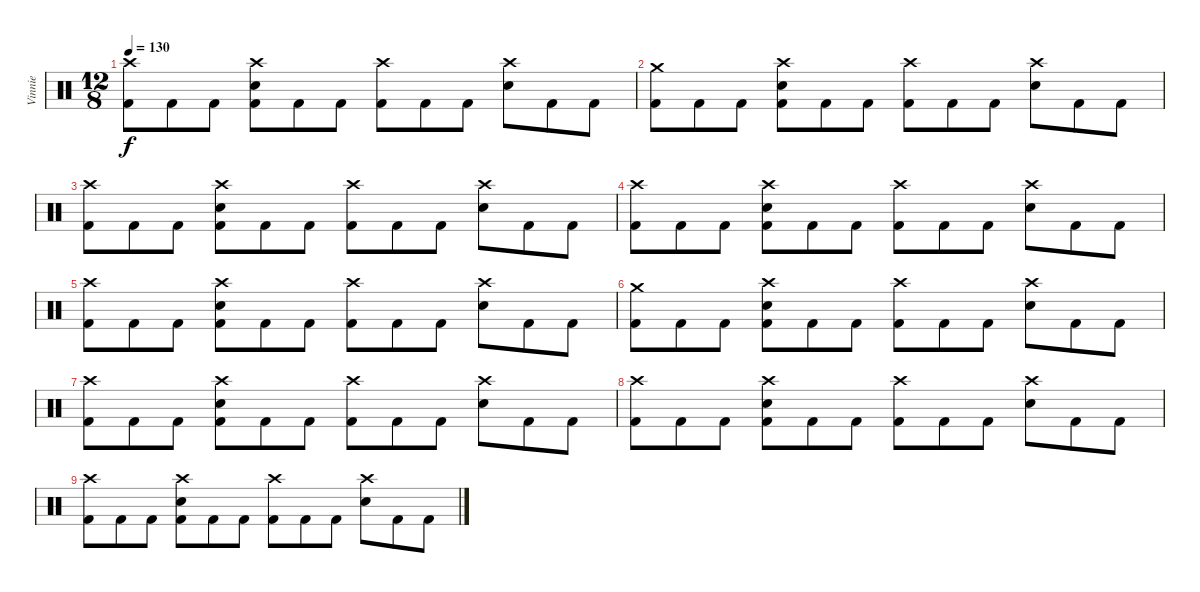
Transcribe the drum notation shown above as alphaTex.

\track ("Vinnie" "Vinnie") {instrument percussion}
\staff {score}
\articulation defaults
\ts (12 8)
\tempo 130
\clef neutral
\ks c
("Crash high (hit)" "Kick (hit) 2").8{dy f} "Kick (hit) 2".8 "Kick (hit) 2".8 ("Crash high (hit)" "Electric Snare (hit)" "Kick (hit) 2").8 "Kick (hit) 2".8 "Kick (hit) 2".8 ("Crash high (hit)" "Kick (hit) 2").8 "Kick (hit) 2".8 "Kick (hit) 2".8 ("Crash high (hit)" "Electric Snare (hit)").8 "Kick (hit) 2".8 "Kick (hit) 2".8 |
("Crash medium (hit)" "Kick (hit) 2").8 "Kick (hit) 2".8 "Kick (hit) 2".8 ("Crash high (hit)" "Electric Snare (hit)" "Kick (hit) 2").8 "Kick (hit) 2".8 "Kick (hit) 2".8 ("Crash high (hit)" "Kick (hit) 2").8 "Kick (hit) 2".8 "Kick (hit) 2".8 ("Crash high (hit)" "Electric Snare (hit)").8 "Kick (hit) 2".8 "Kick (hit) 2".8 |
("Crash high (hit)" "Kick (hit) 2").8 "Kick (hit) 2".8 "Kick (hit) 2".8 ("Crash high (hit)" "Electric Snare (hit)" "Kick (hit) 2").8 "Kick (hit) 2".8 "Kick (hit) 2".8 ("Crash high (hit)" "Kick (hit) 2").8 "Kick (hit) 2".8 "Kick (hit) 2".8 ("Crash high (hit)" "Electric Snare (hit)").8 "Kick (hit) 2".8 "Kick (hit) 2".8 |
("Crash high (hit)" "Kick (hit) 2").8 "Kick (hit) 2".8 "Kick (hit) 2".8 ("Crash high (hit)" "Electric Snare (hit)" "Kick (hit) 2").8 "Kick (hit) 2".8 "Kick (hit) 2".8 ("Crash high (hit)" "Kick (hit) 2").8 "Kick (hit) 2".8 "Kick (hit) 2".8 ("Crash high (hit)" "Electric Snare (hit)").8 "Kick (hit) 2".8 "Kick (hit) 2".8 |
("Crash high (hit)" "Kick (hit) 2").8 "Kick (hit) 2".8 "Kick (hit) 2".8 ("Crash high (hit)" "Electric Snare (hit)" "Kick (hit) 2").8 "Kick (hit) 2".8 "Kick (hit) 2".8 ("Crash high (hit)" "Kick (hit) 2").8 "Kick (hit) 2".8 "Kick (hit) 2".8 ("Crash high (hit)" "Electric Snare (hit)").8 "Kick (hit) 2".8 "Kick (hit) 2".8 |
("Crash medium (hit)" "Kick (hit) 2").8 "Kick (hit) 2".8 "Kick (hit) 2".8 ("Crash high (hit)" "Electric Snare (hit)" "Kick (hit) 2").8 "Kick (hit) 2".8 "Kick (hit) 2".8 ("Crash high (hit)" "Kick (hit) 2").8 "Kick (hit) 2".8 "Kick (hit) 2".8 ("Crash high (hit)" "Electric Snare (hit)").8 "Kick (hit) 2".8 "Kick (hit) 2".8 |
("Crash high (hit)" "Kick (hit) 2").8 "Kick (hit) 2".8 "Kick (hit) 2".8 ("Crash high (hit)" "Electric Snare (hit)" "Kick (hit) 2").8 "Kick (hit) 2".8 "Kick (hit) 2".8 ("Crash high (hit)" "Kick (hit) 2").8 "Kick (hit) 2".8 "Kick (hit) 2".8 ("Crash high (hit)" "Electric Snare (hit)").8 "Kick (hit) 2".8 "Kick (hit) 2".8 |
("Crash high (hit)" "Kick (hit) 2").8 "Kick (hit) 2".8 "Kick (hit) 2".8 ("Crash high (hit)" "Electric Snare (hit)" "Kick (hit) 2").8 "Kick (hit) 2".8 "Kick (hit) 2".8 ("Crash high (hit)" "Kick (hit) 2").8 "Kick (hit) 2".8 "Kick (hit) 2".8 ("Crash high (hit)" "Electric Snare (hit)").8 "Kick (hit) 2".8 "Kick (hit) 2".8 |
("Crash high (hit)" "Kick (hit) 2").8 "Kick (hit) 2".8 "Kick (hit) 2".8 ("Crash high (hit)" "Electric Snare (hit)" "Kick (hit) 2").8 "Kick (hit) 2".8 "Kick (hit) 2".8 ("Crash high (hit)" "Kick (hit) 2").8 "Kick (hit) 2".8 "Kick (hit) 2".8 ("Crash high (hit)" "Electric Snare (hit)").8 "Kick (hit) 2".8 "Kick (hit) 2".8
